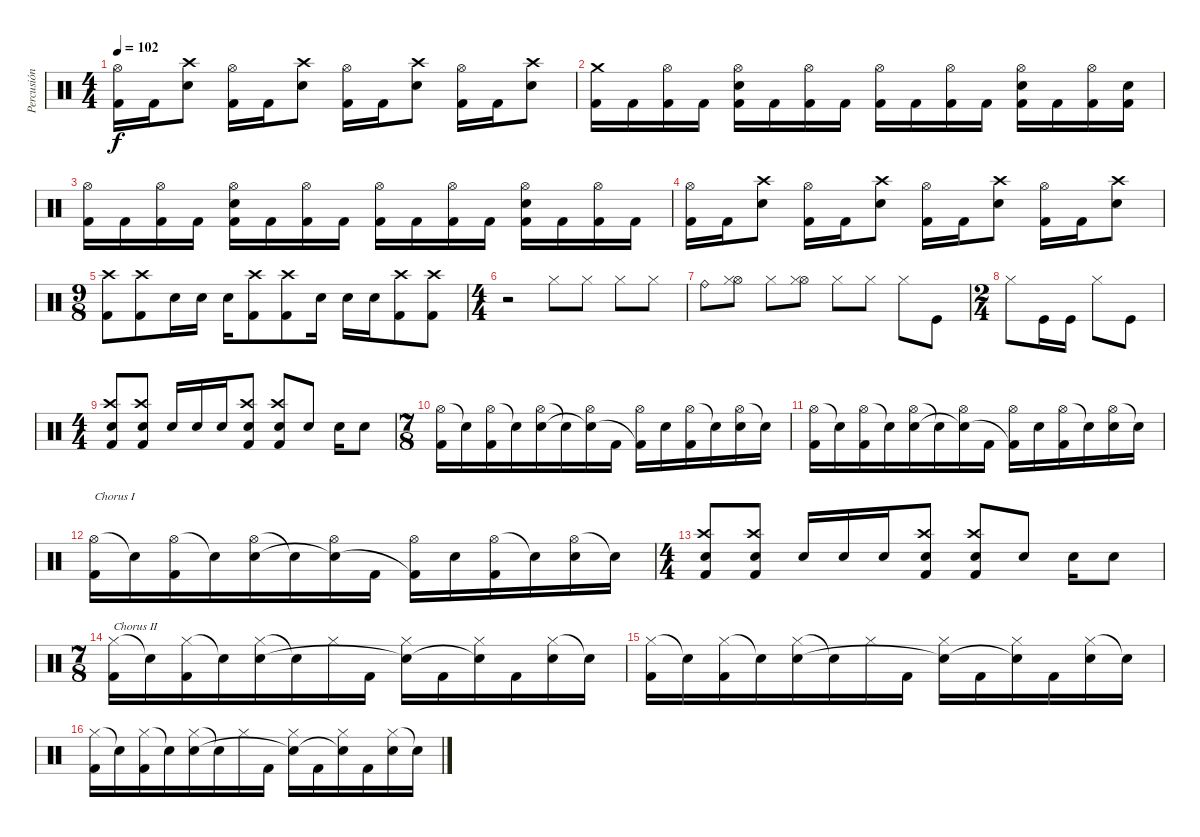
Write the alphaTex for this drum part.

\track ("Percusión" "Percusión") {instrument percussion}
\staff {score}
\articulation defaults
\ts (4 4)
\tempo 102
\clef neutral
\ks c
("Hi-Hat (open)" "Kick (hit) 2").16{dy f} "Kick (hit) 2".16 ("Crash high (hit)" "Electric Snare (hit)").8 ("Hi-Hat (open)" "Kick (hit) 2").16 "Kick (hit) 2".16 ("Crash high (hit)" "Electric Snare (hit)").8 ("Hi-Hat (open)" "Kick (hit) 2").16 "Kick (hit) 2".16 ("Crash high (hit)" "Electric Snare (hit)").8 ("Hi-Hat (open)" "Kick (hit) 2").16 "Kick (hit) 2".16 ("Crash high (hit)" "Electric Snare (hit)").8 |
("Crash medium (hit)" "Kick (hit) 2").16 "Kick (hit) 2".16 ("Hi-Hat (open)" "Kick (hit) 2").16 "Kick (hit) 2".16 ("Hi-Hat (open)" "Electric Snare (hit)" "Kick (hit) 2").16 "Kick (hit) 2".16 ("Hi-Hat (open)" "Kick (hit) 2").16 "Kick (hit) 2".16 ("Hi-Hat (open)" "Kick (hit) 2").16 "Kick (hit) 2".16 ("Hi-Hat (open)" "Kick (hit) 2").16 "Kick (hit) 2".16 ("Hi-Hat (open)" "Electric Snare (hit)" "Kick (hit) 2").16 "Kick (hit) 2".16 ("Hi-Hat (open)" "Kick (hit) 2").16 ("Electric Snare (hit)" "Kick (hit) 2").16 |
("Hi-Hat (open)" "Kick (hit) 2").16 "Kick (hit) 2".16 ("Hi-Hat (open)" "Kick (hit) 2").16 "Kick (hit) 2".16 ("Hi-Hat (open)" "Electric Snare (hit)" "Kick (hit) 2").16 "Kick (hit) 2".16 ("Hi-Hat (open)" "Kick (hit) 2").16 "Kick (hit) 2".16 ("Hi-Hat (open)" "Kick (hit) 2").16 "Kick (hit) 2".16 ("Hi-Hat (open)" "Kick (hit) 2").16 "Kick (hit) 2".16 ("Hi-Hat (open)" "Electric Snare (hit)" "Kick (hit) 2").16 "Kick (hit) 2".16 ("Hi-Hat (open)" "Kick (hit) 2").16 "Kick (hit) 2".16 |
("Hi-Hat (open)" "Kick (hit) 2").16 "Kick (hit) 2".16 ("Crash high (hit)" "Electric Snare (hit)").8 ("Hi-Hat (open)" "Kick (hit) 2").16 "Kick (hit) 2".16 ("Crash high (hit)" "Electric Snare (hit)").8 ("Hi-Hat (open)" "Kick (hit) 2").16 "Kick (hit) 2".16 ("Crash high (hit)" "Electric Snare (hit)").8 ("Hi-Hat (open)" "Kick (hit) 2").16 "Kick (hit) 2".16 ("Crash high (hit)" "Electric Snare (hit)").8 |
\ts (9 8)
("Crash high (hit)" "Kick (hit) 2").8 ("Crash high (hit)" "Kick (hit) 2").8 "Electric Snare (hit)".16 "Electric Snare (hit)".16 "Electric Snare (hit)".16 ("Crash high (hit)" "Kick (hit) 2").8 ("Crash high (hit)" "Kick (hit) 2").8 "Electric Snare (hit)".16 "Electric Snare (hit)".16 "Electric Snare (hit)".16 ("Crash high (hit)" "Kick (hit) 2").8 ("Crash high (hit)" "Kick (hit) 2").8 |
\ts (4 4)
r.2 "Hi-Hat (closed)".8 "Hi-Hat (closed)".8 "Hi-Hat (closed)".8 "Hi-Hat (closed)".8 |
"Ride (bell)".8 ("Hi-Hat (open)" "Hi-Hat (closed)").8 "Hi-Hat (closed)".8 ("Hi-Hat (open)" "Hi-Hat (closed)").8 "Hi-Hat (closed)".8 "Hi-Hat (closed)".8 "Hi-Hat (closed)".8 "Kick (hit)".8 |
\ts (2 4)
"Hi-Hat (closed)".8 "Kick (hit)".16 "Kick (hit)".16 "Hi-Hat (closed)".8 "Kick (hit)".8 |
\ts (4 4)
("Crash high (hit)" "Electric Snare (hit)" "Kick (hit) 2").8 ("Crash high (hit)" "Electric Snare (hit)" "Kick (hit) 2").8 "Electric Snare (hit)".16 "Electric Snare (hit)".16 "Electric Snare (hit)".16 ("Crash high (hit)" "Electric Snare (hit)" "Kick (hit) 2").8 ("Crash high (hit)" "Electric Snare (hit)" "Kick (hit) 2").8 "Electric Snare (hit)".8 "Electric Snare (hit)".16 "Electric Snare (hit)".8 |
\ts (7 8)
("Hi-Hat (open)" "Kick (hit) 2").16 "Snare (hit)"{t}.16 ("Hi-Hat (open)" "Kick (hit) 2").16 "Snare (hit)"{t}.16 ("Hi-Hat (open)" "Electric Snare (hit)").16 "Snare (hit)"{t}.16 ("Hi-Hat (open)" "Snare (hit)"{t}).16 "Kick (hit) 2".16 ("Hi-Hat (open)" "Kick (hit) 2"{t}).16 "Electric Snare (hit)".16 ("Hi-Hat (open)" "Kick (hit) 2").16 "Snare (hit)"{t}.16 ("Hi-Hat (open)" "Electric Snare (hit)").16 "Snare (hit)"{t}.16 |
("Hi-Hat (open)" "Kick (hit) 2").16 "Snare (hit)"{t}.16 ("Hi-Hat (open)" "Kick (hit) 2").16 "Snare (hit)"{t}.16 ("Hi-Hat (open)" "Electric Snare (hit)").16 "Snare (hit)"{t}.16 ("Hi-Hat (open)" "Snare (hit)"{t}).16 "Kick (hit) 2".16 ("Hi-Hat (open)" "Kick (hit) 2"{t}).16 "Electric Snare (hit)".16 ("Hi-Hat (open)" "Kick (hit) 2").16 "Snare (hit)"{t}.16 ("Hi-Hat (open)" "Electric Snare (hit)").16 "Snare (hit)"{t}.16 |
("Hi-Hat (open)" "Kick (hit) 2").16{txt "Chorus I"} "Snare (hit)"{t}.16 ("Hi-Hat (open)" "Kick (hit) 2").16 "Snare (hit)"{t}.16 ("Hi-Hat (open)" "Electric Snare (hit)").16 "Snare (hit)"{t}.16 ("Hi-Hat (open)" "Snare (hit)"{t}).16 "Kick (hit) 2".16 ("Hi-Hat (open)" "Kick (hit) 2"{t}).16 "Electric Snare (hit)".16 ("Hi-Hat (open)" "Kick (hit) 2").16 "Snare (hit)"{t}.16 ("Hi-Hat (open)" "Electric Snare (hit)").16 "Snare (hit)"{t}.16 |
\ts (4 4)
("Crash high (hit)" "Electric Snare (hit)" "Kick (hit) 2").8 ("Crash high (hit)" "Electric Snare (hit)" "Kick (hit) 2").8 "Electric Snare (hit)".16 "Electric Snare (hit)".16 "Electric Snare (hit)".16 ("Crash high (hit)" "Electric Snare (hit)" "Kick (hit) 2").8 ("Crash high (hit)" "Electric Snare (hit)" "Kick (hit) 2").8 "Electric Snare (hit)".8 "Electric Snare (hit)".16 "Electric Snare (hit)".8 |
\ts (7 8)
("Hi-Hat (closed)" "Kick (hit) 2").16{txt "Chorus II"} "Snare (hit)"{t}.16 ("Hi-Hat (closed)" "Kick (hit) 2").16 "Snare (hit)"{t}.16 ("Hi-Hat (closed)" "Electric Snare (hit)").16 "Snare (hit)"{t}.16 "Hi-Hat (closed)".16 "Kick (hit) 2".16 ("Hi-Hat (closed)" "Snare (hit)"{t}).16 "Kick (hit) 2".16 ("Hi-Hat (closed)" "Snare (hit)"{t}).16 "Kick (hit) 2".16 ("Hi-Hat (closed)" "Electric Snare (hit)").16 "Snare (hit)"{t}.16 |
("Hi-Hat (closed)" "Kick (hit) 2").16 "Snare (hit)"{t}.16 ("Hi-Hat (closed)" "Kick (hit) 2").16 "Snare (hit)"{t}.16 ("Hi-Hat (closed)" "Electric Snare (hit)").16 "Snare (hit)"{t}.16 "Hi-Hat (closed)".16 "Kick (hit) 2".16 ("Hi-Hat (closed)" "Snare (hit)"{t}).16 "Kick (hit) 2".16 ("Hi-Hat (closed)" "Snare (hit)"{t}).16 "Kick (hit) 2".16 ("Hi-Hat (closed)" "Electric Snare (hit)").16 "Snare (hit)"{t}.16 |
("Hi-Hat (closed)" "Kick (hit) 2").16 "Snare (hit)"{t}.16 ("Hi-Hat (closed)" "Kick (hit) 2").16 "Snare (hit)"{t}.16 ("Hi-Hat (closed)" "Electric Snare (hit)").16 "Snare (hit)"{t}.16 "Hi-Hat (closed)".16 "Kick (hit) 2".16 ("Hi-Hat (closed)" "Snare (hit)"{t}).16 "Kick (hit) 2".16 ("Hi-Hat (closed)" "Snare (hit)"{t}).16 "Kick (hit) 2".16 ("Hi-Hat (closed)" "Electric Snare (hit)").16 "Snare (hit)"{t}.16
